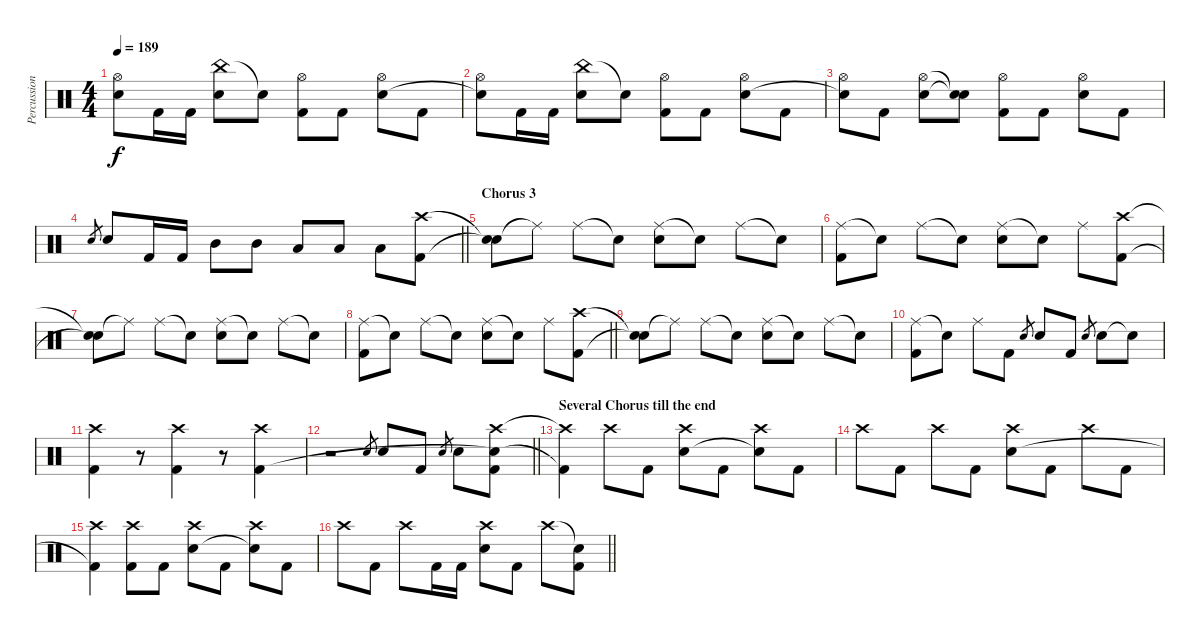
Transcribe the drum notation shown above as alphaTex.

\track ("Percussion" "Percussion") {instrument percussion}
\staff {score}
\articulation defaults
\ts (4 4)
\tempo 189
\clef neutral
\ks c
("Hi-Hat (open)" "Snare (hit)"{t}).8{dy f} "Kick (hit) 2".16 "Kick (hit) 2".16 ("China (hit)" "Electric Snare (hit)").8 "Snare (hit)"{t}.8 ("Hi-Hat (open)" "Kick (hit) 2").8 "Kick (hit) 2".8 ("Hi-Hat (open)" "Electric Snare (hit)").8 "Kick (hit) 2".8 |
("Hi-Hat (open)" "Snare (hit)"{t}).8 "Kick (hit) 2".16 "Kick (hit) 2".16 ("China (hit)" "Electric Snare (hit)").8 "Snare (hit)"{t}.8 ("Hi-Hat (open)" "Kick (hit) 2").8 "Kick (hit) 2".8 ("Hi-Hat (open)" "Electric Snare (hit)").8 "Kick (hit) 2".8 |
("Hi-Hat (open)" "Snare (hit)"{t}).8 "Kick (hit) 2".8 ("Hi-Hat (open)" "Electric Snare (hit)").8 ("Snare (hit)"{t} "Snare (hit)"{t}).8 ("Hi-Hat (open)" "Kick (hit) 2").8 "Kick (hit) 2".8 ("Hi-Hat (open)" "Electric Snare (hit)").8 "Kick (hit) 2".8 |
\barLineRight lightlight "Electric Snare (hit)".8{gr} "Electric Snare (hit)".8 "Kick (hit) 2".16 "Kick (hit) 2".16 "Mid Tom (hit)".8 "Mid Tom (hit)".8 "Low Tom (hit)".8 "Low Tom (hit)".8 "Low Floor Tom (hit)".8
("Crash high (hit)" "Kick (hit) 2").8 |
\section ("" "Chorus 3")
("Snare (hit)"{t} "Snare (hit)"{t}).8 "Ride (middle)"{t}.8 "Ride (middle)".8 "Snare (hit)"{t}.8 ("Ride (middle)" "Electric Snare (hit)").8 "Snare (hit)"{t}.8 "Ride (middle)".8 "Snare (hit)"{t}.8 |
("Ride (middle)" "Kick (hit) 2").8 "Snare (hit)"{t}.8 "Ride (middle)".8 "Snare (hit)"{t}.8 ("Ride (middle)" "Electric Snare (hit)").8 "Snare (hit)"{t}.8 "Ride (middle)".8 ("Crash high (hit)" "Kick (hit) 2").8 |
("Snare (hit)"{t} "Snare (hit)"{t}).8 "Ride (middle)"{t}.8 "Ride (middle)".8 "Snare (hit)"{t}.8 ("Ride (middle)" "Electric Snare (hit)").8 "Snare (hit)"{t}.8 "Ride (middle)".8 "Snare (hit)"{t}.8 |
\barLineRight lightlight
("Ride (middle)" "Kick (hit) 2").8 "Snare (hit)"{t}.8 "Ride (middle)".8 "Snare (hit)"{t}.8 ("Ride (middle)" "Electric Snare (hit)").8 "Snare (hit)"{t}.8 "Ride (middle)".8 ("Crash high (hit)" "Kick (hit) 2").8 |
("Snare (hit)"{t} "Snare (hit)"{t}).8 "Ride (middle)"{t}.8 "Ride (middle)".8 "Snare (hit)"{t}.8 ("Ride (middle)" "Electric Snare (hit)").8 "Snare (hit)"{t}.8 "Ride (middle)".8 "Snare (hit)"{t}.8 |
("Ride (middle)" "Kick (hit) 2").8 "Snare (hit)"{t}.8 "Ride (middle)".8 "Kick (hit) 2".8 "Electric Snare (hit)".8{gr} "Electric Snare (hit)".8 "Kick (hit) 2".8 "Electric Snare (hit)".8{gr} "Electric Snare (hit)".8 "Snare (hit)"{t}.8 |
("Crash high (hit)" "Kick (hit) 2").4 r.8 ("Crash high (hit)" "Kick (hit) 2").4 r.8 ("Crash high (hit)" "Kick (hit) 2").4 |
\barLineRight lightlight
r.2 "Electric Snare (hit)".8{gr} "Electric Snare (hit)".8 "Kick (hit) 2".8 "Electric Snare (hit)".8{gr} "Electric Snare (hit)".8 ("Crash high (hit)" "Snare (hit)"{t} "Kick (hit) 2").8 |
\section ("" "Several Chorus till the end")
("Crash high (hit)"{t} "Kick (hit) 2"{t}).4 "Crash high (hit)".8 "Kick (hit) 2".8 ("Crash high (hit)" "Electric Snare (hit)").8 "Kick (hit) 2".8 ("Crash high (hit)" "Snare (hit)"{t}).8 "Kick (hit) 2".8 |
"Crash high (hit)".8 "Kick (hit) 2".8 "Crash high (hit)".8 "Kick (hit) 2".8 ("Crash high (hit)" "Electric Snare (hit)").8 "Kick (hit) 2".8 "Crash high (hit)".8 "Kick (hit) 2".8 |
("Crash high (hit)" "Kick (hit) 2"{t}).4 ("Crash high (hit)" "Kick (hit) 2").8 "Kick (hit) 2".8 ("Crash high (hit)" "Electric Snare (hit)").8 "Kick (hit) 2".8 ("Crash high (hit)" "Snare (hit)"{t}).8 "Kick (hit) 2".8 |
\barLineRight lightlight "Crash high (hit)".8 "Kick (hit) 2".8 "Crash high (hit)".8 "Kick (hit) 2".16 "Kick (hit) 2".16
("Crash high (hit)" "Electric Snare (hit)").8 "Kick (hit) 2".8 "Crash high (hit)".8 ("Snare (hit)"{t} "Kick (hit) 2").8
